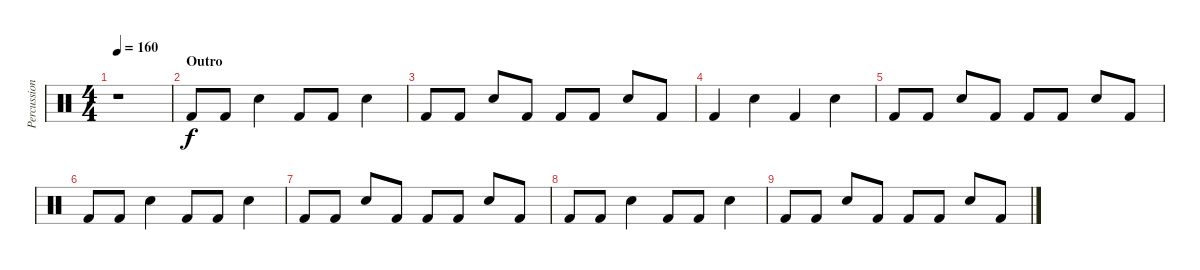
\track ("Percussion" "Percussion") {instrument percussion}
\staff {score}
\articulation defaults
\ts (4 4)
\tempo 160
\clef neutral
\ks c
r.1{dy f} |
\section ("" "Outro")
"Kick (hit) 2".8 "Kick (hit) 2".8 "Electric Snare (hit)".4 "Kick (hit) 2".8 "Kick (hit) 2".8 "Electric Snare (hit)".4 |
"Kick (hit) 2".8 "Kick (hit) 2".8 "Electric Snare (hit)".8 "Kick (hit) 2".8 "Kick (hit) 2".8 "Kick (hit) 2".8 "Electric Snare (hit)".8 "Kick (hit) 2".8 |
"Kick (hit) 2".4 "Electric Snare (hit)".4 "Kick (hit) 2".4 "Electric Snare (hit)".4 |
"Kick (hit) 2".8 "Kick (hit) 2".8 "Electric Snare (hit)".8 "Kick (hit) 2".8 "Kick (hit) 2".8 "Kick (hit) 2".8 "Electric Snare (hit)".8 "Kick (hit) 2".8 |
"Kick (hit) 2".8 "Kick (hit) 2".8 "Electric Snare (hit)".4 "Kick (hit) 2".8 "Kick (hit) 2".8 "Electric Snare (hit)".4 |
"Kick (hit) 2".8 "Kick (hit) 2".8 "Electric Snare (hit)".8 "Kick (hit) 2".8 "Kick (hit) 2".8 "Kick (hit) 2".8 "Electric Snare (hit)".8 "Kick (hit) 2".8 |
"Kick (hit) 2".8 "Kick (hit) 2".8 "Electric Snare (hit)".4 "Kick (hit) 2".8 "Kick (hit) 2".8 "Electric Snare (hit)".4 |
"Kick (hit) 2".8 "Kick (hit) 2".8 "Electric Snare (hit)".8 "Kick (hit) 2".8 "Kick (hit) 2".8 "Kick (hit) 2".8 "Electric Snare (hit)".8 "Kick (hit) 2".8
